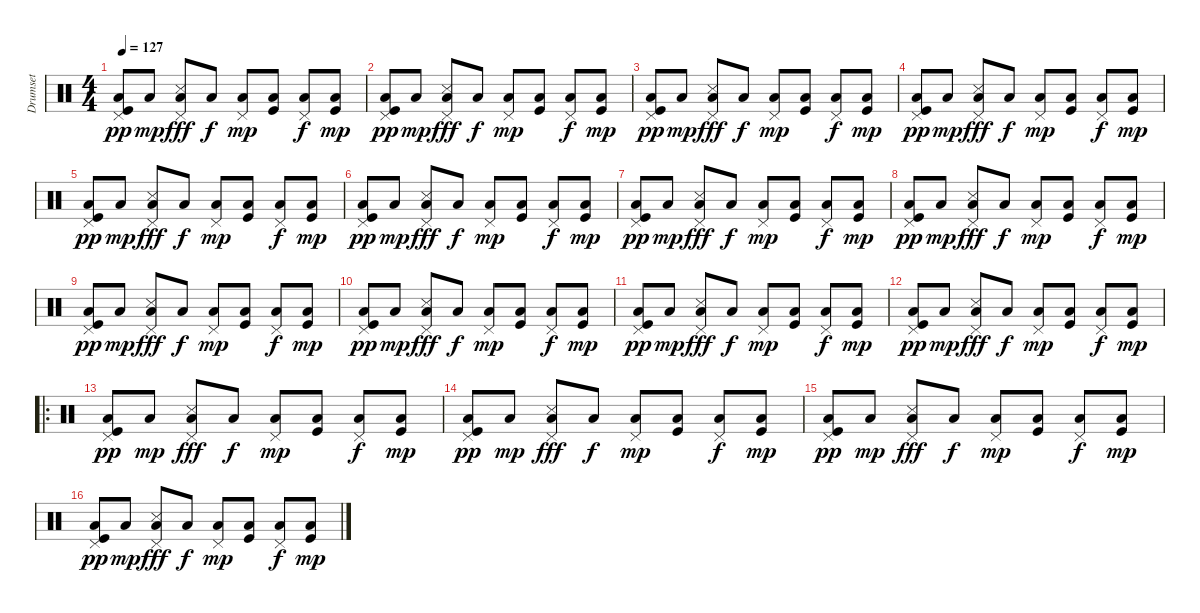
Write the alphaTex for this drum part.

\track ("Drumset" "Drumset") {instrument percussion}
\staff {score}
\articulation defaults
\ts (4 4)
\tempo 127
\clef neutral
\ks c
("Pedal Hi-Hat (hit)" "Low Floor Tom (hit)" "Kick (hit)").8{dy pp} "Low Floor Tom (hit)".8{dy mp} ("Pedal Hi-Hat (hit)" "Snare (side stick) 3" "Low Floor Tom (hit)").8{dy fff} "Low Floor Tom (hit)".8{dy f} ("Pedal Hi-Hat (hit)" "Low Floor Tom (hit)").8{dy mp} ("Low Floor Tom (hit)" "Kick (hit)").8 ("Pedal Hi-Hat (hit)" "Low Floor Tom (hit)").8{dy f} ("Low Floor Tom (hit)" "Kick (hit)").8{dy mp} |
("Pedal Hi-Hat (hit)" "Low Floor Tom (hit)" "Kick (hit)").8{dy pp} "Low Floor Tom (hit)".8{dy mp} ("Pedal Hi-Hat (hit)" "Snare (side stick) 3" "Low Floor Tom (hit)").8{dy fff} "Low Floor Tom (hit)".8{dy f} ("Pedal Hi-Hat (hit)" "Low Floor Tom (hit)").8{dy mp} ("Low Floor Tom (hit)" "Kick (hit)").8 ("Pedal Hi-Hat (hit)" "Low Floor Tom (hit)").8{dy f} ("Low Floor Tom (hit)" "Kick (hit)").8{dy mp} |
("Pedal Hi-Hat (hit)" "Low Floor Tom (hit)" "Kick (hit)").8{dy pp} "Low Floor Tom (hit)".8{dy mp} ("Pedal Hi-Hat (hit)" "Snare (side stick) 3" "Low Floor Tom (hit)").8{dy fff} "Low Floor Tom (hit)".8{dy f} ("Pedal Hi-Hat (hit)" "Low Floor Tom (hit)").8{dy mp} ("Low Floor Tom (hit)" "Kick (hit)").8 ("Pedal Hi-Hat (hit)" "Low Floor Tom (hit)").8{dy f} ("Low Floor Tom (hit)" "Kick (hit)").8{dy mp} |
("Pedal Hi-Hat (hit)" "Low Floor Tom (hit)" "Kick (hit)").8{dy pp} "Low Floor Tom (hit)".8{dy mp} ("Pedal Hi-Hat (hit)" "Snare (side stick) 3" "Low Floor Tom (hit)").8{dy fff} "Low Floor Tom (hit)".8{dy f} ("Pedal Hi-Hat (hit)" "Low Floor Tom (hit)").8{dy mp} ("Low Floor Tom (hit)" "Kick (hit)").8 ("Pedal Hi-Hat (hit)" "Low Floor Tom (hit)").8{dy f} ("Low Floor Tom (hit)" "Kick (hit)").8{dy mp} |
("Pedal Hi-Hat (hit)" "Low Floor Tom (hit)" "Kick (hit)").8{dy pp} "Low Floor Tom (hit)".8{dy mp} ("Pedal Hi-Hat (hit)" "Snare (side stick) 3" "Low Floor Tom (hit)").8{dy fff} "Low Floor Tom (hit)".8{dy f} ("Pedal Hi-Hat (hit)" "Low Floor Tom (hit)").8{dy mp} ("Low Floor Tom (hit)" "Kick (hit)").8 ("Pedal Hi-Hat (hit)" "Low Floor Tom (hit)").8{dy f} ("Low Floor Tom (hit)" "Kick (hit)").8{dy mp} |
("Pedal Hi-Hat (hit)" "Low Floor Tom (hit)" "Kick (hit)").8{dy pp} "Low Floor Tom (hit)".8{dy mp} ("Pedal Hi-Hat (hit)" "Snare (side stick) 3" "Low Floor Tom (hit)").8{dy fff} "Low Floor Tom (hit)".8{dy f} ("Pedal Hi-Hat (hit)" "Low Floor Tom (hit)").8{dy mp} ("Low Floor Tom (hit)" "Kick (hit)").8 ("Pedal Hi-Hat (hit)" "Low Floor Tom (hit)").8{dy f} ("Low Floor Tom (hit)" "Kick (hit)").8{dy mp} |
("Pedal Hi-Hat (hit)" "Low Floor Tom (hit)" "Kick (hit)").8{dy pp} "Low Floor Tom (hit)".8{dy mp} ("Pedal Hi-Hat (hit)" "Snare (side stick) 3" "Low Floor Tom (hit)").8{dy fff} "Low Floor Tom (hit)".8{dy f} ("Pedal Hi-Hat (hit)" "Low Floor Tom (hit)").8{dy mp} ("Low Floor Tom (hit)" "Kick (hit)").8 ("Pedal Hi-Hat (hit)" "Low Floor Tom (hit)").8{dy f} ("Low Floor Tom (hit)" "Kick (hit)").8{dy mp} |
("Pedal Hi-Hat (hit)" "Low Floor Tom (hit)" "Kick (hit)").8{dy pp} "Low Floor Tom (hit)".8{dy mp} ("Pedal Hi-Hat (hit)" "Snare (side stick) 3" "Low Floor Tom (hit)").8{dy fff} "Low Floor Tom (hit)".8{dy f} ("Pedal Hi-Hat (hit)" "Low Floor Tom (hit)").8{dy mp} ("Low Floor Tom (hit)" "Kick (hit)").8 ("Pedal Hi-Hat (hit)" "Low Floor Tom (hit)").8{dy f} ("Low Floor Tom (hit)" "Kick (hit)").8{dy mp} |
("Pedal Hi-Hat (hit)" "Low Floor Tom (hit)" "Kick (hit)").8{dy pp} "Low Floor Tom (hit)".8{dy mp} ("Pedal Hi-Hat (hit)" "Snare (side stick) 3" "Low Floor Tom (hit)").8{dy fff} "Low Floor Tom (hit)".8{dy f} ("Pedal Hi-Hat (hit)" "Low Floor Tom (hit)").8{dy mp} ("Low Floor Tom (hit)" "Kick (hit)").8 ("Pedal Hi-Hat (hit)" "Low Floor Tom (hit)").8{dy f} ("Low Floor Tom (hit)" "Kick (hit)").8{dy mp} |
("Pedal Hi-Hat (hit)" "Low Floor Tom (hit)" "Kick (hit)").8{dy pp} "Low Floor Tom (hit)".8{dy mp} ("Pedal Hi-Hat (hit)" "Snare (side stick) 3" "Low Floor Tom (hit)").8{dy fff} "Low Floor Tom (hit)".8{dy f} ("Pedal Hi-Hat (hit)" "Low Floor Tom (hit)").8{dy mp} ("Low Floor Tom (hit)" "Kick (hit)").8 ("Pedal Hi-Hat (hit)" "Low Floor Tom (hit)").8{dy f} ("Low Floor Tom (hit)" "Kick (hit)").8{dy mp} |
("Pedal Hi-Hat (hit)" "Low Floor Tom (hit)" "Kick (hit)").8{dy pp} "Low Floor Tom (hit)".8{dy mp} ("Pedal Hi-Hat (hit)" "Snare (side stick) 3" "Low Floor Tom (hit)").8{dy fff} "Low Floor Tom (hit)".8{dy f} ("Pedal Hi-Hat (hit)" "Low Floor Tom (hit)").8{dy mp} ("Low Floor Tom (hit)" "Kick (hit)").8 ("Pedal Hi-Hat (hit)" "Low Floor Tom (hit)").8{dy f} ("Low Floor Tom (hit)" "Kick (hit)").8{dy mp} |
("Pedal Hi-Hat (hit)" "Low Floor Tom (hit)" "Kick (hit)").8{dy pp} "Low Floor Tom (hit)".8{dy mp} ("Pedal Hi-Hat (hit)" "Snare (side stick) 3" "Low Floor Tom (hit)").8{dy fff} "Low Floor Tom (hit)".8{dy f} ("Pedal Hi-Hat (hit)" "Low Floor Tom (hit)").8{dy mp} ("Low Floor Tom (hit)" "Kick (hit)").8 ("Pedal Hi-Hat (hit)" "Low Floor Tom (hit)").8{dy f} ("Low Floor Tom (hit)" "Kick (hit)").8{dy mp} |
\ro
("Pedal Hi-Hat (hit)" "Low Floor Tom (hit)" "Kick (hit)").8{dy pp} "Low Floor Tom (hit)".8{dy mp} ("Pedal Hi-Hat (hit)" "Snare (side stick) 3" "Low Floor Tom (hit)").8{dy fff} "Low Floor Tom (hit)".8{dy f} ("Pedal Hi-Hat (hit)" "Low Floor Tom (hit)").8{dy mp} ("Low Floor Tom (hit)" "Kick (hit)").8 ("Pedal Hi-Hat (hit)" "Low Floor Tom (hit)").8{dy f} ("Low Floor Tom (hit)" "Kick (hit)").8{dy mp} |
("Pedal Hi-Hat (hit)" "Low Floor Tom (hit)" "Kick (hit)").8{dy pp} "Low Floor Tom (hit)".8{dy mp} ("Pedal Hi-Hat (hit)" "Snare (side stick) 3" "Low Floor Tom (hit)").8{dy fff} "Low Floor Tom (hit)".8{dy f} ("Pedal Hi-Hat (hit)" "Low Floor Tom (hit)").8{dy mp} ("Low Floor Tom (hit)" "Kick (hit)").8 ("Pedal Hi-Hat (hit)" "Low Floor Tom (hit)").8{dy f} ("Low Floor Tom (hit)" "Kick (hit)").8{dy mp} |
("Pedal Hi-Hat (hit)" "Low Floor Tom (hit)" "Kick (hit)").8{dy pp} "Low Floor Tom (hit)".8{dy mp} ("Pedal Hi-Hat (hit)" "Snare (side stick) 3" "Low Floor Tom (hit)").8{dy fff} "Low Floor Tom (hit)".8{dy f} ("Pedal Hi-Hat (hit)" "Low Floor Tom (hit)").8{dy mp} ("Low Floor Tom (hit)" "Kick (hit)").8 ("Pedal Hi-Hat (hit)" "Low Floor Tom (hit)").8{dy f} ("Low Floor Tom (hit)" "Kick (hit)").8{dy mp} |
("Pedal Hi-Hat (hit)" "Low Floor Tom (hit)" "Kick (hit)").8{dy pp} "Low Floor Tom (hit)".8{dy mp} ("Pedal Hi-Hat (hit)" "Snare (side stick) 3" "Low Floor Tom (hit)").8{dy fff} "Low Floor Tom (hit)".8{dy f} ("Pedal Hi-Hat (hit)" "Low Floor Tom (hit)").8{dy mp} ("Low Floor Tom (hit)" "Kick (hit)").8 ("Pedal Hi-Hat (hit)" "Low Floor Tom (hit)").8{dy f} ("Low Floor Tom (hit)" "Kick (hit)").8{dy mp}
